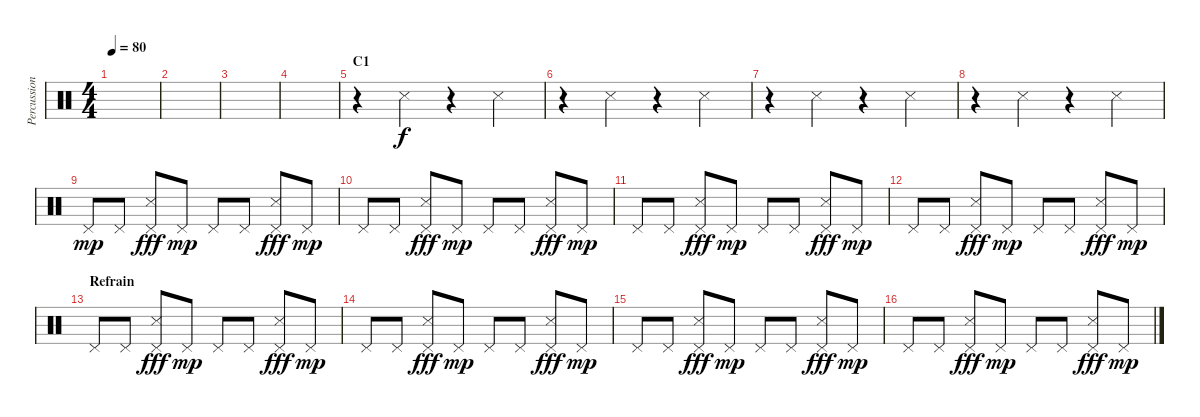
\track ("Percussions" "Percussion") {instrument percussion}
\staff {score}
\articulation defaults
\ts (4 4)
\tempo 80
\clef neutral
\ks c
|
|
|
|
\section ("" "C1")
r.4 "Snare (side stick) 3".4 r.4 "Snare (side stick) 3".4 |
r.4 "Snare (side stick) 3".4 r.4 "Snare (side stick) 3".4 |
r.4 "Snare (side stick) 3".4 r.4 "Snare (side stick) 3".4 |
r.4 "Snare (side stick) 3".4 r.4 "Snare (side stick) 3".4 |
"Pedal Hi-Hat (hit)".8{dy mp} "Pedal Hi-Hat (hit)".8 ("Pedal Hi-Hat (hit)" "Snare (side stick) 3").8{dy fff} "Pedal Hi-Hat (hit)".8{dy mp} "Pedal Hi-Hat (hit)".8 "Pedal Hi-Hat (hit)".8 ("Pedal Hi-Hat (hit)" "Snare (side stick) 3").8{dy fff} "Pedal Hi-Hat (hit)".8{dy mp} |
"Pedal Hi-Hat (hit)".8 "Pedal Hi-Hat (hit)".8 ("Pedal Hi-Hat (hit)" "Snare (side stick) 3").8{dy fff} "Pedal Hi-Hat (hit)".8{dy mp} "Pedal Hi-Hat (hit)".8 "Pedal Hi-Hat (hit)".8 ("Pedal Hi-Hat (hit)" "Snare (side stick) 3").8{dy fff} "Pedal Hi-Hat (hit)".8{dy mp} |
"Pedal Hi-Hat (hit)".8 "Pedal Hi-Hat (hit)".8 ("Pedal Hi-Hat (hit)" "Snare (side stick) 3").8{dy fff} "Pedal Hi-Hat (hit)".8{dy mp} "Pedal Hi-Hat (hit)".8 "Pedal Hi-Hat (hit)".8 ("Pedal Hi-Hat (hit)" "Snare (side stick) 3").8{dy fff} "Pedal Hi-Hat (hit)".8{dy mp} |
"Pedal Hi-Hat (hit)".8 "Pedal Hi-Hat (hit)".8 ("Pedal Hi-Hat (hit)" "Snare (side stick) 3").8{dy fff} "Pedal Hi-Hat (hit)".8{dy mp} "Pedal Hi-Hat (hit)".8 "Pedal Hi-Hat (hit)".8 ("Pedal Hi-Hat (hit)" "Snare (side stick) 3").8{dy fff} "Pedal Hi-Hat (hit)".8{dy mp} |
\section ("" "Refrain")
"Pedal Hi-Hat (hit)".8 "Pedal Hi-Hat (hit)".8 ("Pedal Hi-Hat (hit)" "Snare (side stick) 3").8{dy fff} "Pedal Hi-Hat (hit)".8{dy mp} "Pedal Hi-Hat (hit)".8 "Pedal Hi-Hat (hit)".8 ("Pedal Hi-Hat (hit)" "Snare (side stick) 3").8{dy fff} "Pedal Hi-Hat (hit)".8{dy mp} |
"Pedal Hi-Hat (hit)".8 "Pedal Hi-Hat (hit)".8 ("Pedal Hi-Hat (hit)" "Snare (side stick) 3").8{dy fff} "Pedal Hi-Hat (hit)".8{dy mp} "Pedal Hi-Hat (hit)".8 "Pedal Hi-Hat (hit)".8 ("Pedal Hi-Hat (hit)" "Snare (side stick) 3").8{dy fff} "Pedal Hi-Hat (hit)".8{dy mp} |
"Pedal Hi-Hat (hit)".8 "Pedal Hi-Hat (hit)".8 ("Pedal Hi-Hat (hit)" "Snare (side stick) 3").8{dy fff} "Pedal Hi-Hat (hit)".8{dy mp} "Pedal Hi-Hat (hit)".8 "Pedal Hi-Hat (hit)".8 ("Pedal Hi-Hat (hit)" "Snare (side stick) 3").8{dy fff} "Pedal Hi-Hat (hit)".8{dy mp} |
"Pedal Hi-Hat (hit)".8 "Pedal Hi-Hat (hit)".8 ("Pedal Hi-Hat (hit)" "Snare (side stick) 3").8{dy fff} "Pedal Hi-Hat (hit)".8{dy mp} "Pedal Hi-Hat (hit)".8 "Pedal Hi-Hat (hit)".8 ("Pedal Hi-Hat (hit)" "Snare (side stick) 3").8{dy fff} "Pedal Hi-Hat (hit)".8{dy mp}
